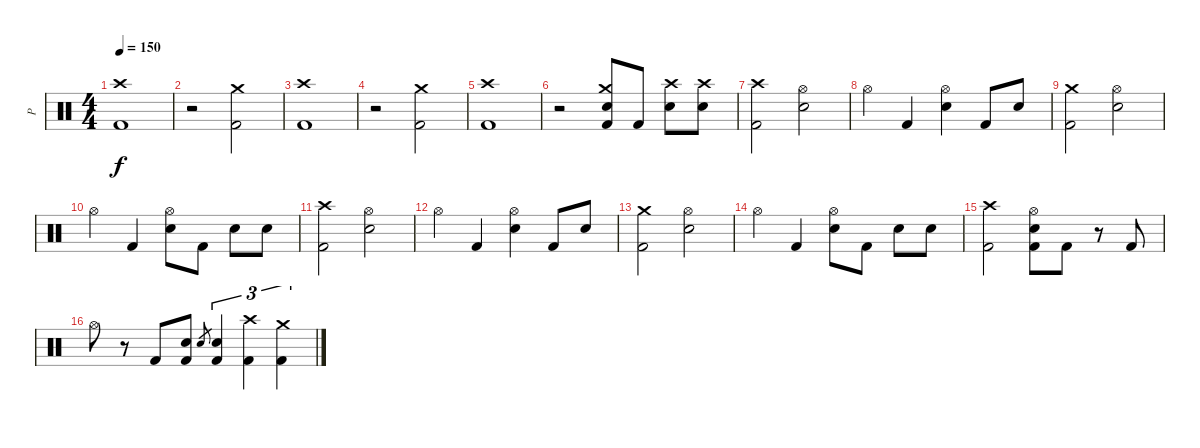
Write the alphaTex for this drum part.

\track ("P" "P") {instrument percussion}
\staff {score}
\articulation defaults
\ts (4 4)
\tempo 150
\clef neutral
\ks c
("Crash high (hit)" "Kick (hit) 2").1{dy f} |
r.2 ("Crash medium (hit)" "Kick (hit) 2").2 |
("Crash high (hit)" "Kick (hit) 2").1 |
r.2 ("Crash medium (hit)" "Kick (hit) 2").2 |
("Crash high (hit)" "Kick (hit) 2").1 |
r.2 ("Crash medium (hit)" "Electric Snare (hit)" "Kick (hit) 2").8 "Kick (hit) 2".8 ("Crash high (hit)" "Electric Snare (hit)").8 ("Crash high (hit)" "Electric Snare (hit)").8 |
("Crash high (hit)" "Kick (hit) 2").2 ("Hi-Hat (open)" "Electric Snare (hit)").2 |
"Hi-Hat (open)".4 "Kick (hit) 2".4 ("Hi-Hat (open)" "Electric Snare (hit)").4 "Kick (hit) 2".8 "Electric Snare (hit)".8 |
("Crash medium (hit)" "Kick (hit) 2").2 ("Hi-Hat (open)" "Electric Snare (hit)").2 |
"Hi-Hat (open)".4 "Kick (hit) 2".4 ("Hi-Hat (open)" "Electric Snare (hit)").8 "Kick (hit) 2".8 "Electric Snare (hit)".8 "Electric Snare (hit)".8 |
("Crash high (hit)" "Kick (hit) 2").2 ("Hi-Hat (open)" "Electric Snare (hit)").2 |
"Hi-Hat (open)".4 "Kick (hit) 2".4 ("Hi-Hat (open)" "Electric Snare (hit)").4 "Kick (hit) 2".8 "Electric Snare (hit)".8 |
("Crash medium (hit)" "Kick (hit) 2").2 ("Hi-Hat (open)" "Electric Snare (hit)").2 |
"Hi-Hat (open)".4 "Kick (hit) 2".4 ("Hi-Hat (open)" "Electric Snare (hit)").8 "Kick (hit) 2".8 "Electric Snare (hit)".8 "Electric Snare (hit)".8 |
("Crash high (hit)" "Kick (hit) 2").2 ("Hi-Hat (open)" "Electric Snare (hit)" "Kick (hit) 2").8 "Kick (hit) 2".8 r.8 "Kick (hit) 2".8 |
"Hi-Hat (open)".8 r.8 "Kick (hit) 2".8 ("Electric Snare (hit)" "Kick (hit) 2").8 "Electric Snare (hit)".8{gr} ("Electric Snare (hit)" "Kick (hit) 2").4{tu (3 2)} ("Crash high (hit)" "Kick (hit) 2").4{tu (3 2)} ("Crash medium (hit)" "Kick (hit) 2").4{tu (3 2)}
